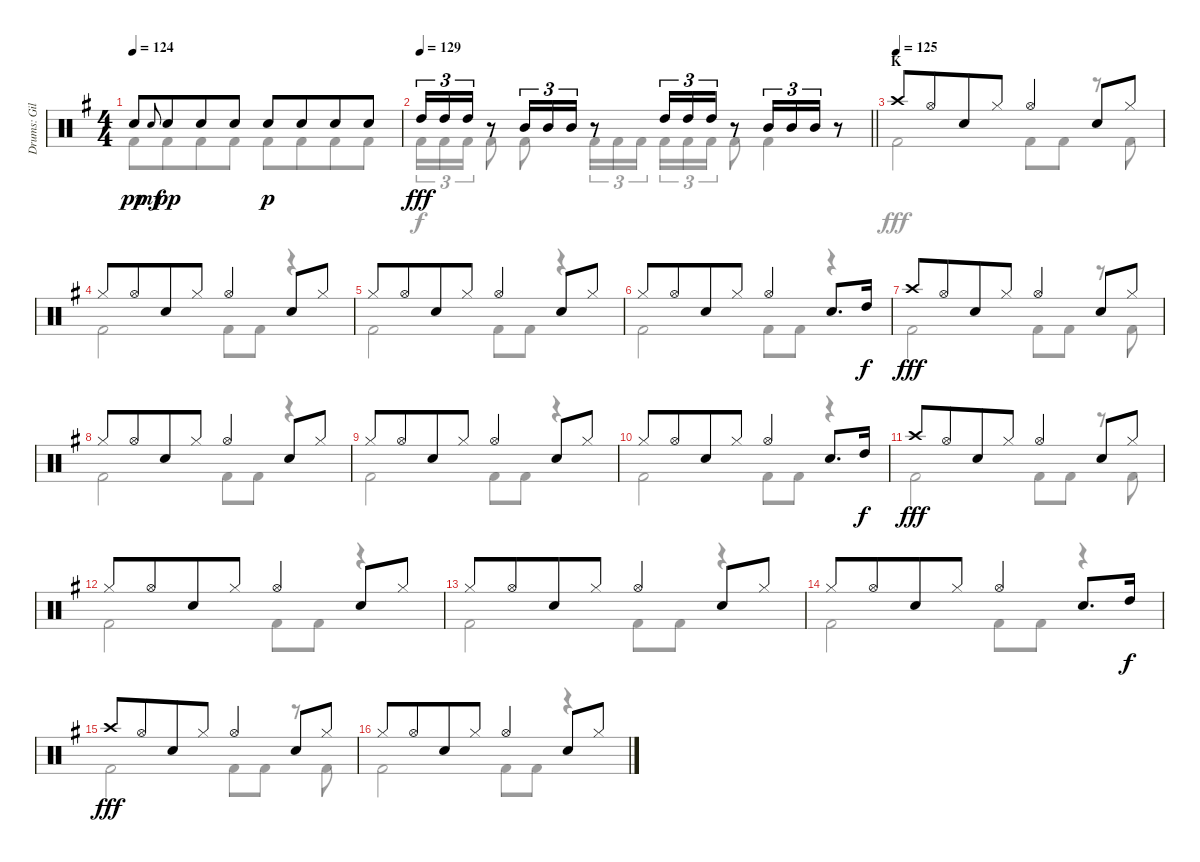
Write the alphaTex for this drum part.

\track ("Drums: Gil" "Drums: Gil") {instrument percussion}
\staff {score}
\articulation defaults
\voice
\ts (4 4)
\tempo 124
\clef neutral
\ks g "Snare (hit) 2".8{dy pp} "Electric Snare (hit)".8{gr onbeat dy mf} "Snare (hit) 2".8{dy pp beam merge} "Snare (hit) 2".8 "Snare (hit) 2".8 "Snare (hit) 2".8{dy p} "Snare (hit) 2".8{beam merge} "Snare (hit) 2".8 "Snare (hit) 2".8
|
\tempo 129
\barLineRight lightlight "High Tom (hit)".16{tu (3 2) dy fff} "High Tom (hit)".16{tu (3 2)} "High Tom (hit)".16{tu (3 2)}
r.8 "Mid Tom (hit)".16{tu (3 2)} "Mid Tom (hit)".16{tu (3 2)} "Mid Tom (hit)".16{tu (3 2)} r.8 "High Tom (hit)".16{tu (3 2)} "High Tom (hit)".16{tu (3 2)} "High Tom (hit)".16{tu (3 2)} r.8 "Mid Tom (hit)".16{tu (3 2)} "Mid Tom (hit)".16{tu (3 2)} "Mid Tom (hit)".16{tu (3 2)} r.8 |
\section ("" "K")
\tempo (125)
"Crash high (hit)".8 "Hi-Hat (open)".8{beam merge} "Snare (hit) 2".8 "Hi-Hat (closed)".8 "Hi-Hat (open)".4 "Snare (hit) 2".8 "Hi-Hat (closed)".8 |
"Hi-Hat (closed)".8 "Hi-Hat (open)".8{beam merge} "Snare (hit) 2".8 "Hi-Hat (closed)".8 "Hi-Hat (open)".4 "Snare (hit) 2".8 "Hi-Hat (closed)".8 |
"Hi-Hat (closed)".8 "Hi-Hat (open)".8{beam merge} "Snare (hit) 2".8 "Hi-Hat (closed)".8 "Hi-Hat (open)".4 "Snare (hit) 2".8 "Hi-Hat (closed)".8 |
"Hi-Hat (closed)".8 "Hi-Hat (open)".8{beam merge} "Snare (hit) 2".8 "Hi-Hat (closed)".8 "Hi-Hat (open)".4 "Snare (hit) 2".8{d} "High Tom (hit)".16{dy f} |
"Crash high (hit)".8{dy fff} "Hi-Hat (open)".8{beam merge} "Snare (hit) 2".8 "Hi-Hat (closed)".8 "Hi-Hat (open)".4 "Snare (hit) 2".8 "Hi-Hat (closed)".8 |
"Hi-Hat (closed)".8 "Hi-Hat (open)".8{beam merge} "Snare (hit) 2".8 "Hi-Hat (closed)".8 "Hi-Hat (open)".4 "Snare (hit) 2".8 "Hi-Hat (closed)".8 |
"Hi-Hat (closed)".8 "Hi-Hat (open)".8{beam merge} "Snare (hit) 2".8 "Hi-Hat (closed)".8 "Hi-Hat (open)".4 "Snare (hit) 2".8 "Hi-Hat (closed)".8 |
"Hi-Hat (closed)".8 "Hi-Hat (open)".8{beam merge} "Snare (hit) 2".8 "Hi-Hat (closed)".8 "Hi-Hat (open)".4 "Snare (hit) 2".8{d} "High Tom (hit)".16{dy f} |
"Crash high (hit)".8{dy fff} "Hi-Hat (open)".8{beam merge} "Snare (hit) 2".8 "Hi-Hat (closed)".8 "Hi-Hat (open)".4 "Snare (hit) 2".8 "Hi-Hat (closed)".8 |
"Hi-Hat (closed)".8 "Hi-Hat (open)".8{beam merge} "Snare (hit) 2".8 "Hi-Hat (closed)".8 "Hi-Hat (open)".4 "Snare (hit) 2".8 "Hi-Hat (closed)".8 |
"Hi-Hat (closed)".8 "Hi-Hat (open)".8{beam merge} "Snare (hit) 2".8 "Hi-Hat (closed)".8 "Hi-Hat (open)".4 "Snare (hit) 2".8 "Hi-Hat (closed)".8 |
"Hi-Hat (closed)".8 "Hi-Hat (open)".8{beam merge} "Snare (hit) 2".8 "Hi-Hat (closed)".8 "Hi-Hat (open)".4 "Snare (hit) 2".8{d} "High Tom (hit)".16{dy f} |
"Crash high (hit)".8{dy fff} "Hi-Hat (open)".8{beam merge} "Snare (hit) 2".8 "Hi-Hat (closed)".8 "Hi-Hat (open)".4 "Snare (hit) 2".8 "Hi-Hat (closed)".8 |
"Hi-Hat (closed)".8 "Hi-Hat (open)".8{beam merge} "Snare (hit) 2".8 "Hi-Hat (closed)".8 "Hi-Hat (open)".4 "Snare (hit) 2".8 "Hi-Hat (closed)".8
\voice
\clef neutral
\ottava regular
\simile none
\ks g "Kick (hit) 2".8{dy pp beam merge} "Kick (hit) 2".8{beam merge} "Kick (hit) 2".8{beam merge} "Kick (hit) 2".8 "Kick (hit) 2".8{dy p beam merge} "Kick (hit) 2".8{beam merge} "Kick (hit) 2".8{beam merge} "Kick (hit) 2".8
|
\barLineRight lightlight "Kick (hit) 2".16{tu (3 2) dy f beam merge} "Kick (hit) 2".16{tu (3 2) beam merge} "Kick (hit) 2".16{tu (3 2)} "Kick (hit) 2".8 "Kick (hit) 2".8 "Kick (hit) 2".16{tu (3 2) beam merge} "Kick (hit) 2".16{tu (3 2) beam merge} "Kick (hit) 2".16{tu (3 2)} "Kick (hit) 2".16{tu (3 2) beam merge} "Kick (hit) 2".16{tu (3 2) beam merge} "Kick (hit) 2".16{tu (3 2)} "Kick (hit) 2".8 "Kick (hit) 2".4
|
"Kick (hit) 2".2{dy fff} "Kick (hit) 2".8 "Kick (hit) 2".8 r.8 "Kick (hit) 2".8 |
"Kick (hit) 2".2 "Kick (hit) 2".8 "Kick (hit) 2".8 r.4 |
"Kick (hit) 2".2 "Kick (hit) 2".8 "Kick (hit) 2".8 r.4 |
"Kick (hit) 2".2 "Kick (hit) 2".8 "Kick (hit) 2".8 r.4 |
"Kick (hit) 2".2 "Kick (hit) 2".8 "Kick (hit) 2".8 r.8 "Kick (hit) 2".8 |
"Kick (hit) 2".2 "Kick (hit) 2".8 "Kick (hit) 2".8 r.4 |
"Kick (hit) 2".2 "Kick (hit) 2".8 "Kick (hit) 2".8 r.4 |
"Kick (hit) 2".2 "Kick (hit) 2".8 "Kick (hit) 2".8 r.4 |
"Kick (hit) 2".2 "Kick (hit) 2".8 "Kick (hit) 2".8 r.8 "Kick (hit) 2".8 |
"Kick (hit) 2".2 "Kick (hit) 2".8 "Kick (hit) 2".8 r.4 |
"Kick (hit) 2".2 "Kick (hit) 2".8 "Kick (hit) 2".8 r.4 |
"Kick (hit) 2".2 "Kick (hit) 2".8 "Kick (hit) 2".8 r.4 |
"Kick (hit) 2".2 "Kick (hit) 2".8 "Kick (hit) 2".8 r.8 "Kick (hit) 2".8 |
"Kick (hit) 2".2 "Kick (hit) 2".8 "Kick (hit) 2".8 r.4
